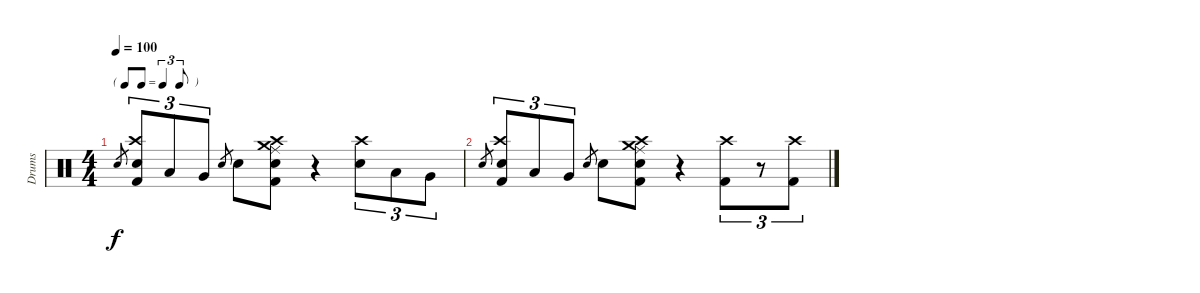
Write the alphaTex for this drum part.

\track ("Drums" "Drums") {instrument percussion}
\staff {score}
\articulation defaults
\ts (4 4)
\tf triplet8th
\tempo 100
\clef neutral
\ks c "Electric Snare (hit)".8{gr dy f}
("Crash high (hit)" "Electric Snare (hit)" "Kick (hit) 2").8{tu (3 2)} "Low Tom (hit)".8{tu (3 2)} "Very Low Tom (hit)".8{tu (3 2)} "Electric Snare (hit)".8{gr} "Electric Snare (hit)".8 ("Ride (middle)" "Crash high (hit)" "Crash medium (hit)" "Electric Snare (hit)" "Kick (hit) 2").8 r.4 ("Crash high (hit)" "Electric Snare (hit)").8{tu (3 2)} "Low Tom (hit)".8{tu (3 2)} "Very Low Tom (hit)".8{tu (3 2)} |
"Electric Snare (hit)".8{gr} ("Crash high (hit)" "Electric Snare (hit)" "Kick (hit) 2").8{tu (3 2)} "Low Tom (hit)".8{tu (3 2)} "Very Low Tom (hit)".8{tu (3 2)} "Electric Snare (hit)".8{gr} "Electric Snare (hit)".8 ("Ride (middle)" "Crash high (hit)" "Crash medium (hit)" "Electric Snare (hit)" "Kick (hit) 2").8 r.4 ("Crash high (hit)" "Kick (hit) 2").8{tu (3 2)} r.8{tu (3 2)} ("Crash high (hit)" "Kick (hit) 2").8{tu (3 2)}
